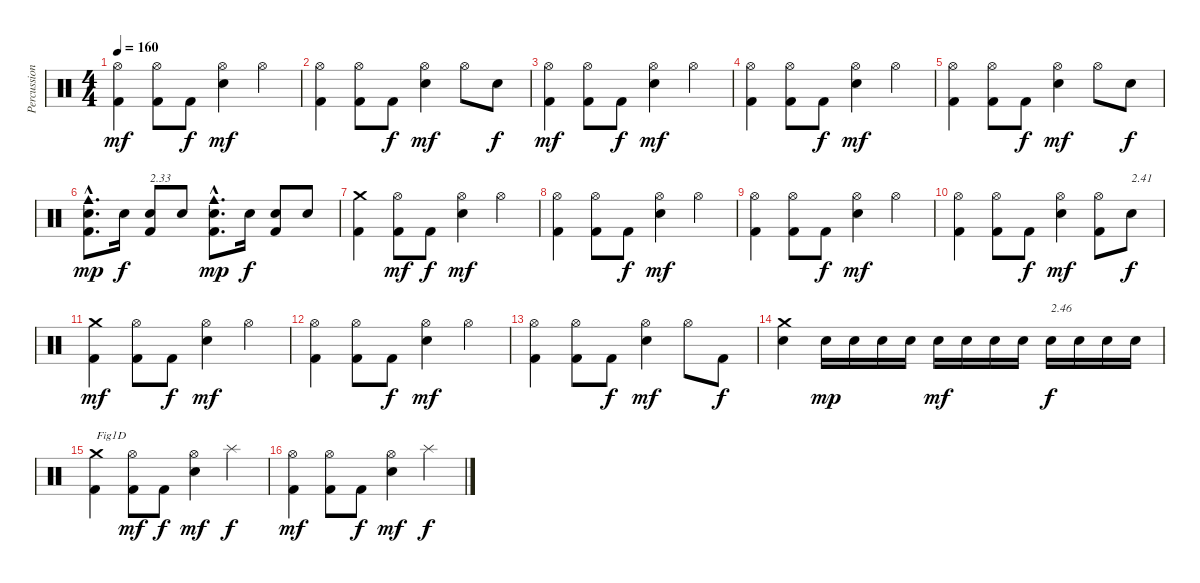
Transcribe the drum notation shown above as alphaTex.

\track ("Percussions" "Percussion") {instrument percussion}
\staff {score}
\articulation defaults
\ts (4 4)
\tempo 160
\clef neutral
\ks c
("Kick (hit) 2" "Hi-Hat (open)").4{dy mf} ("Kick (hit) 2" "Hi-Hat (open)").8 "Kick (hit) 2".8{dy f} ("Electric Snare (hit)" "Hi-Hat (open)").4{dy mf} "Hi-Hat (open)".4 |
("Kick (hit) 2" "Hi-Hat (open)").4 ("Kick (hit) 2" "Hi-Hat (open)").8 "Kick (hit) 2".8{dy f} ("Electric Snare (hit)" "Hi-Hat (open)").4{dy mf} "Hi-Hat (open)".8 "Electric Snare (hit)".8{dy f} |
("Kick (hit) 2" "Hi-Hat (open)").4{dy mf} ("Kick (hit) 2" "Hi-Hat (open)").8 "Kick (hit) 2".8{dy f} ("Electric Snare (hit)" "Hi-Hat (open)").4{dy mf} "Hi-Hat (open)".4 |
("Kick (hit) 2" "Hi-Hat (open)").4 ("Kick (hit) 2" "Hi-Hat (open)").8 "Kick (hit) 2".8{dy f} ("Electric Snare (hit)" "Hi-Hat (open)").4{dy mf} "Hi-Hat (open)".4 |
("Kick (hit) 2" "Hi-Hat (open)").4 ("Kick (hit) 2" "Hi-Hat (open)").8 "Kick (hit) 2".8{dy f} ("Electric Snare (hit)" "Hi-Hat (open)").4{dy mf} "Hi-Hat (open)".8 "Electric Snare (hit)".8{dy f} |
("Kick (hit) 2"{hac} "Electric Snare (hit)"{hac} "Cowbell medium (hit)"{hac}).8{d dy mp} "Electric Snare (hit)".16{dy f} ("Kick (hit) 2" "Electric Snare (hit)").8{txt "2.33"} "Electric Snare (hit)".8 ("Kick (hit) 2"{hac} "Electric Snare (hit)"{hac} "Cowbell medium (hit)"{hac}).8{d dy mp} "Electric Snare (hit)".16{dy f} ("Kick (hit) 2" "Electric Snare (hit)").8 "Electric Snare (hit)".8 |
("Kick (hit) 2" "Crash medium (hit)").4 ("Kick (hit) 2" "Hi-Hat (open)").8{dy mf} "Kick (hit) 2".8{dy f} ("Electric Snare (hit)" "Hi-Hat (open)").4{dy mf} "Hi-Hat (open)".4 |
("Kick (hit) 2" "Hi-Hat (open)").4 ("Kick (hit) 2" "Hi-Hat (open)").8 "Kick (hit) 2".8{dy f} ("Electric Snare (hit)" "Hi-Hat (open)").4{dy mf} "Hi-Hat (open)".4 |
("Kick (hit) 2" "Hi-Hat (open)").4 ("Kick (hit) 2" "Hi-Hat (open)").8 "Kick (hit) 2".8{dy f} ("Electric Snare (hit)" "Hi-Hat (open)").4{dy mf} "Hi-Hat (open)".4 |
("Kick (hit) 2" "Hi-Hat (open)").4 ("Kick (hit) 2" "Hi-Hat (open)").8 "Kick (hit) 2".8{dy f} ("Electric Snare (hit)" "Hi-Hat (open)").4{dy mf} ("Kick (hit) 2" "Hi-Hat (open)").8 "Electric Snare (hit)".8{txt "2.41" dy f} |
("Kick (hit) 2" "Crash medium (hit)").4{dy mf} ("Kick (hit) 2" "Hi-Hat (open)").8 "Kick (hit) 2".8{dy f} ("Electric Snare (hit)" "Hi-Hat (open)").4{dy mf} "Hi-Hat (open)".4 |
("Kick (hit) 2" "Hi-Hat (open)").4 ("Kick (hit) 2" "Hi-Hat (open)").8 "Kick (hit) 2".8{dy f} ("Electric Snare (hit)" "Hi-Hat (open)").4{dy mf} "Hi-Hat (open)".4 |
("Kick (hit) 2" "Hi-Hat (open)").4 ("Kick (hit) 2" "Hi-Hat (open)").8 "Kick (hit) 2".8{dy f} ("Electric Snare (hit)" "Hi-Hat (open)").4{dy mf} "Hi-Hat (open)".8 "Kick (hit) 2".8{dy f} |
("Electric Snare (hit)" "Crash medium (hit)").4 "Electric Snare (hit)".16{dy mp} "Electric Snare (hit)".16 "Electric Snare (hit)".16 "Electric Snare (hit)".16 "Electric Snare (hit)".16{dy mf} "Electric Snare (hit)".16 "Electric Snare (hit)".16 "Electric Snare (hit)".16 "Electric Snare (hit)".16{txt "2.46" dy f} "Electric Snare (hit)".16 "Electric Snare (hit)".16 "Electric Snare (hit)".16 |
("Kick (hit) 2" "Crash medium (hit)").4{txt "Fig1D"} ("Kick (hit) 2" "Hi-Hat (open)").8{dy mf} "Kick (hit) 2".8{dy f} ("Electric Snare (hit)" "Hi-Hat (open)").4{dy mf} "Splash (hit)".4{dy f} |
("Kick (hit) 2" "Hi-Hat (open)").4{dy mf} ("Kick (hit) 2" "Hi-Hat (open)").8 "Kick (hit) 2".8{dy f} ("Electric Snare (hit)" "Hi-Hat (open)").4{dy mf} "Splash (hit)".4{dy f}
